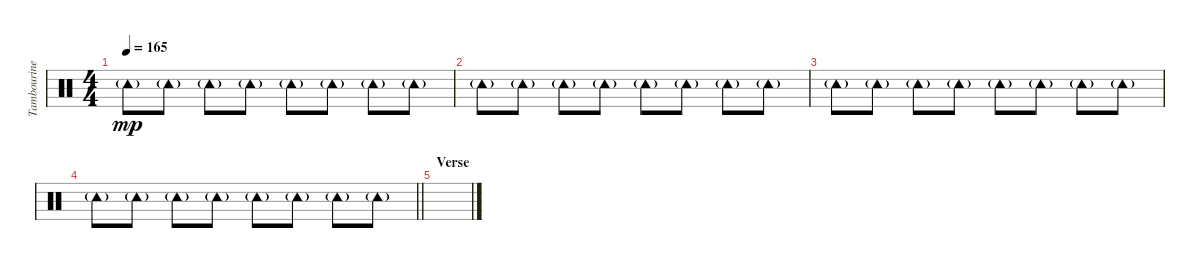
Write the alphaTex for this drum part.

\track ("Tambourine" "Tambourine") {instrument percussion}
\staff {score}
\articulation defaults
\ts (4 4)
\tempo 165
\clef neutral
\ks c "Tambourine (hit)"{g}.8{dy mp} "Tambourine (hit)"{g}.8 "Tambourine (hit)"{g}.8 "Tambourine (hit)"{g}.8 "Tambourine (hit)"{g}.8 "Tambourine (hit)"{g}.8 "Tambourine (hit)"{g}.8 "Tambourine (hit)"{g}.8
|
"Tambourine (hit)"{g}.8 "Tambourine (hit)"{g}.8 "Tambourine (hit)"{g}.8 "Tambourine (hit)"{g}.8 "Tambourine (hit)"{g}.8 "Tambourine (hit)"{g}.8 "Tambourine (hit)"{g}.8 "Tambourine (hit)"{g}.8 |
"Tambourine (hit)"{g}.8 "Tambourine (hit)"{g}.8 "Tambourine (hit)"{g}.8 "Tambourine (hit)"{g}.8 "Tambourine (hit)"{g}.8 "Tambourine (hit)"{g}.8 "Tambourine (hit)"{g}.8 "Tambourine (hit)"{g}.8 |
\barLineRight lightlight "Tambourine (hit)"{g}.8 "Tambourine (hit)"{g}.8 "Tambourine (hit)"{g}.8 "Tambourine (hit)"{g}.8 "Tambourine (hit)"{g}.8 "Tambourine (hit)"{g}.8 "Tambourine (hit)"{g}.8 "Tambourine (hit)"{g}.8
|
\section ("" "Verse")
